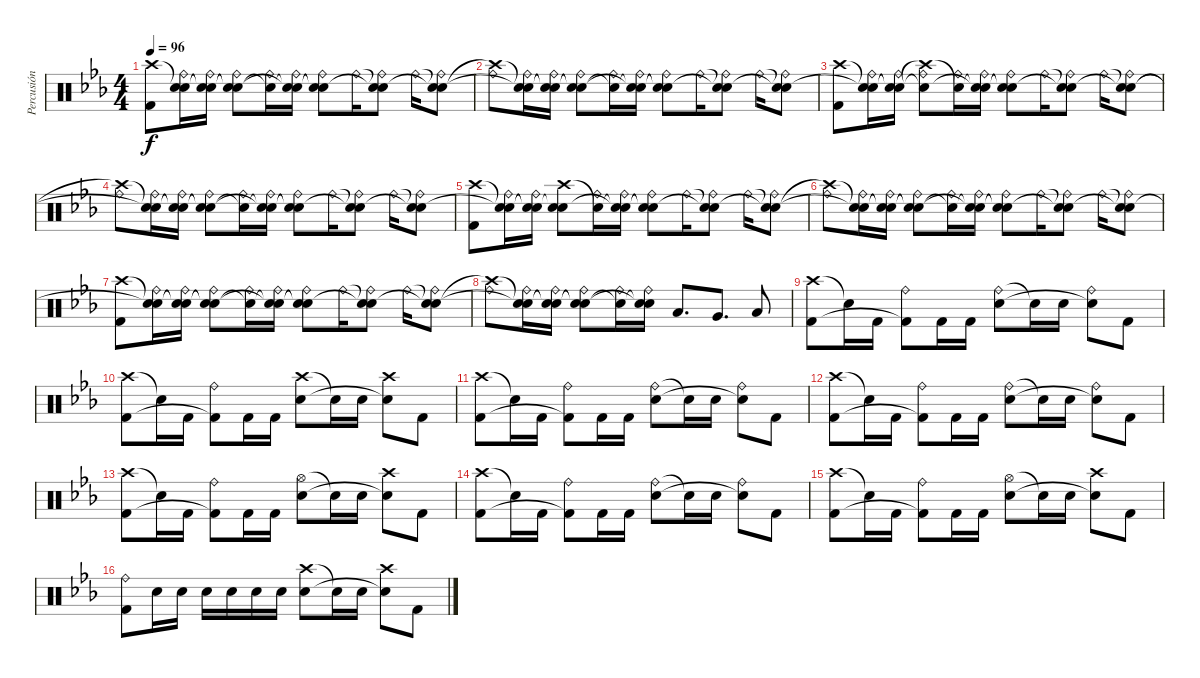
\track ("Percusión" "Percusión") {instrument percussion}
\staff {score}
\articulation defaults
\ts (4 4)
\tempo 96
\clef neutral
\ks eb
("Crash high (hit)" "Kick (hit) 2").8{dy f} ("Snare (hit)"{t} "Ride (bell)" "Snare (hit)"{t}).16 ("Snare (hit)"{t} "Ride (bell)" "Snare (hit)"{t}).16 ("Snare (hit)"{t} "Ride (bell)" "Snare (hit)"{t}).8 ("Snare (hit)"{t} "Ride (bell)").16 ("Snare (hit)"{t} "Ride (bell)" "Snare (hit)"{t}).16 ("Snare (hit)"{t} "Ride (bell)" "Snare (hit)"{t}).8 "Ride (bell)".16 ("Snare (hit)"{t} "Ride (bell)" "Snare (hit)"{t}).8 "Ride (bell)".16 ("Snare (hit)"{t} "Ride (bell)" "Snare (hit)"{t}).8 |
("Crash high (hit)"{t} "Ride (bell)").8 ("Snare (hit)"{t} "Ride (bell)" "Snare (hit)"{t}).16 ("Snare (hit)"{t} "Ride (bell)" "Snare (hit)"{t}).16 ("Snare (hit)"{t} "Ride (bell)" "Snare (hit)"{t}).8 ("Snare (hit)"{t} "Ride (bell)").16 ("Snare (hit)"{t} "Ride (bell)" "Snare (hit)"{t}).16 ("Snare (hit)"{t} "Ride (bell)" "Snare (hit)"{t}).8 "Ride (bell)".16 ("Snare (hit)"{t} "Ride (bell)" "Snare (hit)"{t}).8 "Ride (bell)".16 ("Snare (hit)"{t} "Ride (bell)" "Snare (hit)"{t}).8 |
("Crash high (hit)" "Kick (hit) 2").8 ("Snare (hit)"{t} "Ride (bell)" "Snare (hit)"{t}).16 ("Snare (hit)"{t} "Ride (bell)" "Snare (hit)"{t}).16 ("Crash high (hit)"{t} "Ride (bell)" "Snare (hit)"{t}).8 ("Snare (hit)"{t} "Ride (bell)").16 ("Snare (hit)"{t} "Ride (bell)" "Snare (hit)"{t}).16 ("Snare (hit)"{t} "Ride (bell)" "Snare (hit)"{t}).8 "Ride (bell)".16 ("Snare (hit)"{t} "Ride (bell)" "Snare (hit)"{t}).8 "Ride (bell)".16 ("Snare (hit)"{t} "Ride (bell)" "Snare (hit)"{t}).8 |
("Crash high (hit)"{t} "Ride (bell)").8 ("Snare (hit)"{t} "Ride (bell)" "Snare (hit)"{t}).16 ("Snare (hit)"{t} "Ride (bell)" "Snare (hit)"{t}).16 ("Snare (hit)"{t} "Ride (bell)" "Snare (hit)"{t}).8 ("Snare (hit)"{t} "Ride (bell)").16 ("Snare (hit)"{t} "Ride (bell)" "Snare (hit)"{t}).16 ("Snare (hit)"{t} "Ride (bell)" "Snare (hit)"{t}).8 "Ride (bell)".16 ("Snare (hit)"{t} "Ride (bell)" "Snare (hit)"{t}).8 "Ride (bell)".16 ("Snare (hit)"{t} "Ride (bell)" "Snare (hit)"{t}).8 |
("Crash high (hit)" "Kick (hit) 2").8 ("Snare (hit)"{t} "Ride (bell)" "Snare (hit)"{t}).16 ("Snare (hit)"{t} "Ride (bell)" "Snare (hit)"{t}).16 ("Crash high (hit)" "Electric Snare (hit)" "Snare (hit)"{t}).8 ("Snare (hit)"{t} "Ride (bell)").16 ("Snare (hit)"{t} "Ride (bell)" "Snare (hit)"{t}).16 ("Snare (hit)"{t} "Ride (bell)" "Snare (hit)"{t}).8 "Ride (bell)".16 ("Snare (hit)"{t} "Ride (bell)" "Snare (hit)"{t}).8 "Ride (bell)".16 ("Snare (hit)"{t} "Ride (bell)" "Snare (hit)"{t}).8 |
("Crash high (hit)"{t} "Ride (bell)").8 ("Snare (hit)"{t} "Ride (bell)" "Snare (hit)"{t}).16 ("Snare (hit)"{t} "Ride (bell)" "Snare (hit)"{t}).16 ("Snare (hit)"{t} "Ride (bell)" "Snare (hit)"{t}).8 ("Snare (hit)"{t} "Ride (bell)").16 ("Snare (hit)"{t} "Ride (bell)" "Snare (hit)"{t}).16 ("Snare (hit)"{t} "Ride (bell)" "Snare (hit)"{t}).8 "Ride (bell)".16 ("Snare (hit)"{t} "Ride (bell)" "Snare (hit)"{t}).8 "Ride (bell)".16 ("Snare (hit)"{t} "Ride (bell)" "Snare (hit)"{t}).8 |
("Crash high (hit)" "Kick (hit) 2").8 ("Snare (hit)"{t} "Ride (bell)" "Snare (hit)"{t}).16 ("Snare (hit)"{t} "Ride (bell)" "Snare (hit)"{t}).16 ("Snare (hit)"{t} "Ride (bell)" "Snare (hit)"{t}).8 ("Snare (hit)"{t} "Ride (bell)").16 ("Snare (hit)"{t} "Ride (bell)" "Snare (hit)"{t}).16 ("Snare (hit)"{t} "Ride (bell)" "Snare (hit)"{t}).8 "Ride (bell)".16 ("Snare (hit)"{t} "Ride (bell)" "Snare (hit)"{t}).8 "Ride (bell)".16 ("Snare (hit)"{t} "Ride (bell)" "Snare (hit)"{t}).8 |
("Crash high (hit)"{t} "Ride (bell)").8 ("Snare (hit)"{t} "Ride (bell)" "Snare (hit)"{t}).16 ("Snare (hit)"{t} "Ride (bell)" "Snare (hit)"{t}).16 ("Snare (hit)"{t} "Ride (bell)" "Snare (hit)"{t}).8 ("Snare (hit)"{t} "Ride (bell)").16 ("Snare (hit)"{t} "Ride (bell)" "Snare (hit)"{t}).16 "Low Tom (hit)".8{d} "Very Low Tom (hit)".8{d} "Low Tom (hit)".8 |
("Crash high (hit)" "Kick (hit) 2").8 "Snare (hit)"{t}.16 "Kick (hit) 2".16 ("Ride (bell)" "Kick (hit) 2"{t}).8 "Kick (hit) 2".16 "Kick (hit) 2".16 ("Ride (bell)" "Electric Snare (hit)").8 "Snare (hit)"{t}.16 "Electric Snare (hit)".16 ("Ride (bell)" "Snare (hit)"{t}).8 "Kick (hit) 2".8 |
("Crash high (hit)" "Kick (hit) 2").8 "Snare (hit)"{t}.16 "Kick (hit) 2".16 ("Ride (bell)" "Kick (hit) 2"{t}).8 "Kick (hit) 2".16 "Kick (hit) 2".16 ("Crash high (hit)" "Electric Snare (hit)").8 "Snare (hit)"{t}.16 "Electric Snare (hit)".16 ("Crash high (hit)" "Snare (hit)"{t}).8 "Kick (hit) 2".8 |
("Crash high (hit)" "Kick (hit) 2").8 "Snare (hit)"{t}.16 "Kick (hit) 2".16 ("Ride (bell)" "Kick (hit) 2"{t}).8 "Kick (hit) 2".16 "Kick (hit) 2".16 ("Ride (bell)" "Electric Snare (hit)").8 "Snare (hit)"{t}.16 "Electric Snare (hit)".16 ("Ride (bell)" "Snare (hit)"{t}).8 "Kick (hit) 2".8 |
("Crash high (hit)" "Kick (hit) 2").8 "Snare (hit)"{t}.16 "Kick (hit) 2".16 ("Ride (bell)" "Kick (hit) 2"{t}).8 "Kick (hit) 2".16 "Kick (hit) 2".16 ("Ride (bell)" "Electric Snare (hit)").8 "Snare (hit)"{t}.16 "Electric Snare (hit)".16 ("Ride (bell)" "Snare (hit)"{t}).8 "Kick (hit) 2".8 |
("Crash high (hit)" "Kick (hit) 2").8 "Snare (hit)"{t}.16 "Kick (hit) 2".16 ("Ride (bell)" "Kick (hit) 2"{t}).8 "Kick (hit) 2".16 "Kick (hit) 2".16 ("Hi-Hat (open)" "Electric Snare (hit)").8 "Snare (hit)"{t}.16 "Electric Snare (hit)".16 ("Crash high (hit)" "Snare (hit)"{t}).8 "Kick (hit) 2".8 |
("Crash high (hit)" "Kick (hit) 2").8 "Snare (hit)"{t}.16 "Kick (hit) 2".16 ("Ride (bell)" "Kick (hit) 2"{t}).8 "Kick (hit) 2".16 "Kick (hit) 2".16 ("Ride (bell)" "Electric Snare (hit)").8 "Snare (hit)"{t}.16 "Electric Snare (hit)".16 ("Ride (bell)" "Snare (hit)"{t}).8 "Kick (hit) 2".8 |
("Crash high (hit)" "Kick (hit) 2").8 "Snare (hit)"{t}.16 "Kick (hit) 2".16 ("Ride (bell)" "Kick (hit) 2"{t}).8 "Kick (hit) 2".16 "Kick (hit) 2".16 ("Hi-Hat (open)" "Electric Snare (hit)").8 "Snare (hit)"{t}.16 "Electric Snare (hit)".16 ("Crash high (hit)" "Snare (hit)"{t}).8 "Kick (hit) 2".8 |
("Ride (bell)" "Kick (hit) 2").8 "Electric Snare (hit)".16 "Electric Snare (hit)".16 "Electric Snare (hit)".16 "Electric Snare (hit)".16 "Electric Snare (hit)".16 "Electric Snare (hit)".16 ("Crash high (hit)" "Electric Snare (hit)").8 "Snare (hit)"{t}.16 "Electric Snare (hit)".16 ("Crash high (hit)" "Snare (hit)"{t}).8 "Kick (hit) 2".8
